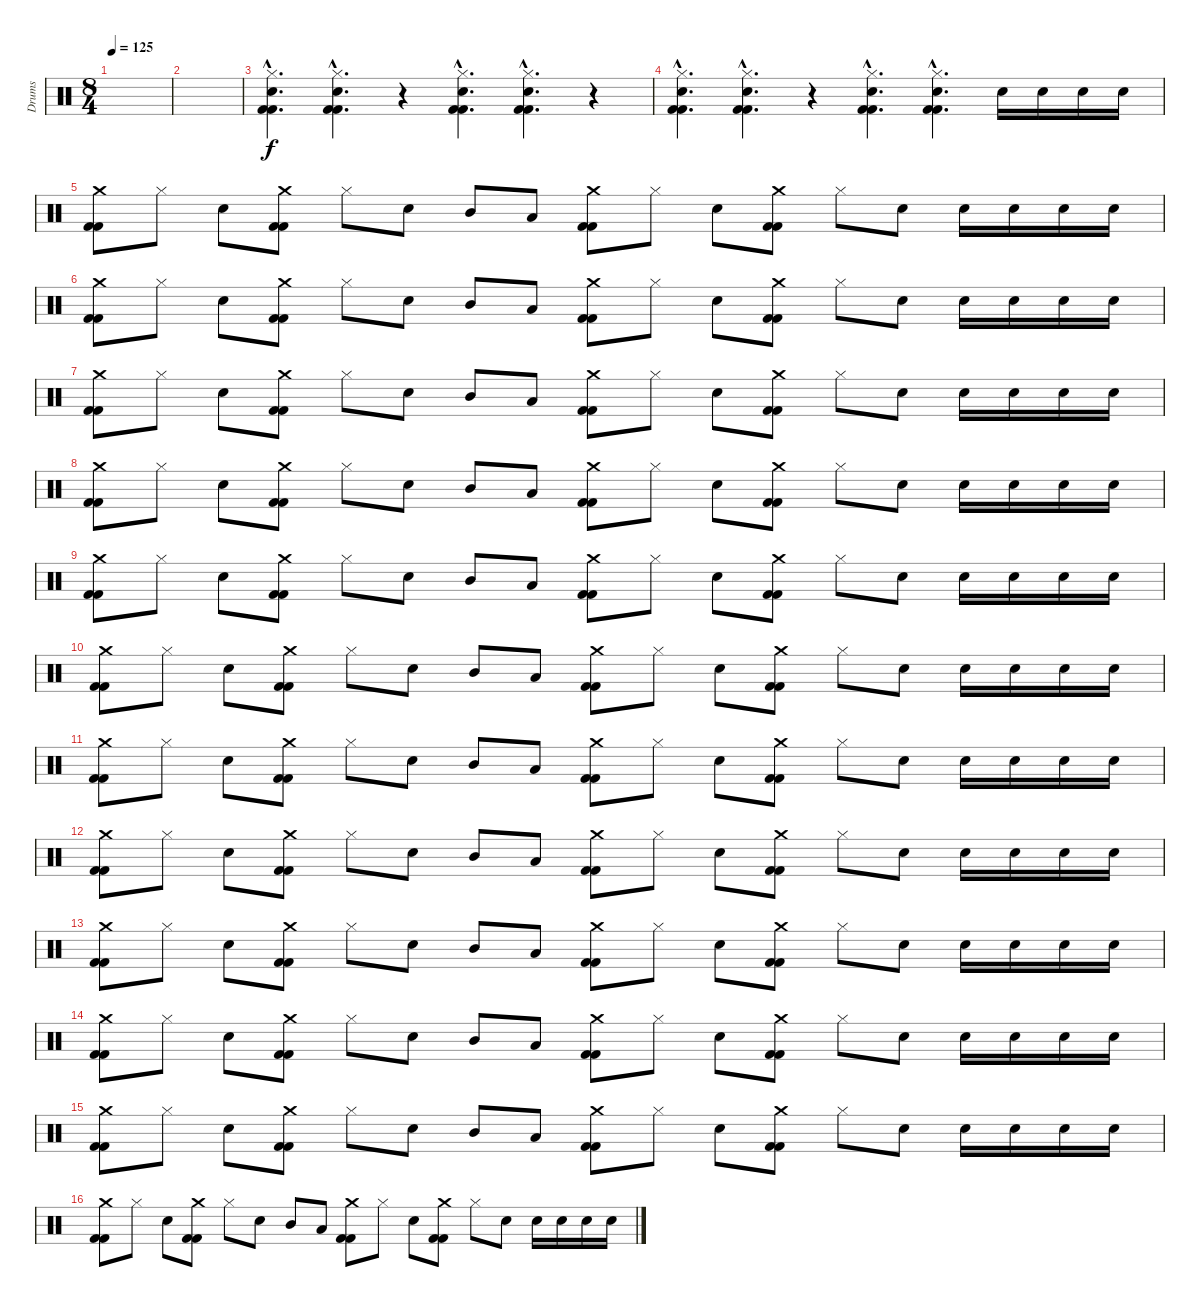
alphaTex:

\track ("Drums" "Drums") {instrument percussion}
\staff {score}
\articulation defaults
\ts (8 4)
\tempo 125
\clef neutral
\ks c
|
|
("Hi-Hat (closed)"{hac} "Snare (hit) 2"{hac} "Kick (hit) 2"{hac} "Kick (hit) 2"{hac}).4{d} ("Hi-Hat (closed)"{hac} "Snare (hit) 2"{hac} "Kick (hit) 2"{hac} "Kick (hit) 2"{hac}).4{d} r.4 ("Hi-Hat (closed)"{hac} "Snare (hit) 2"{hac} "Kick (hit) 2"{hac} "Kick (hit) 2"{hac}).4{d} ("Hi-Hat (closed)"{hac} "Snare (hit) 2"{hac} "Kick (hit) 2"{hac} "Kick (hit) 2"{hac}).4{d} r.4 |
("Hi-Hat (closed)"{hac} "Snare (hit) 2"{hac} "Kick (hit) 2"{hac} "Kick (hit) 2"{hac}).4{d} ("Hi-Hat (closed)"{hac} "Snare (hit) 2"{hac} "Kick (hit) 2"{hac} "Kick (hit) 2"{hac}).4{d} r.4 ("Hi-Hat (closed)"{hac} "Snare (hit) 2"{hac} "Kick (hit) 2"{hac} "Kick (hit) 2"{hac}).4{d} ("Hi-Hat (closed)"{hac} "Snare (hit) 2"{hac} "Kick (hit) 2"{hac} "Kick (hit) 2"{hac}).4{d} "Snare (hit) 2".16 "Snare (hit) 2".16 "Snare (hit) 2".16 "Snare (hit) 2".16 |
("Crash medium (hit)" "Kick (hit) 2" "Kick (hit) 2").8 "Hi-Hat (closed)".8 "Snare (hit) 2".8 ("Crash medium (hit)" "Kick (hit) 2" "Kick (hit) 2").8 "Hi-Hat (closed)".8 "Snare (hit) 2".8 "Mid Tom (hit)".8 "Low Tom (hit)".8 ("Crash medium (hit)" "Kick (hit) 2" "Kick (hit) 2").8 "Hi-Hat (closed)".8 "Snare (hit) 2".8 ("Crash medium (hit)" "Kick (hit) 2" "Kick (hit) 2").8 "Hi-Hat (closed)".8 "Snare (hit) 2".8 "Snare (hit) 2".16 "Snare (hit) 2".16 "Snare (hit) 2".16 "Snare (hit) 2".16 |
("Crash medium (hit)" "Kick (hit) 2" "Kick (hit) 2").8 "Hi-Hat (closed)".8 "Snare (hit) 2".8 ("Crash medium (hit)" "Kick (hit) 2" "Kick (hit) 2").8 "Hi-Hat (closed)".8 "Snare (hit) 2".8 "Mid Tom (hit)".8 "Low Tom (hit)".8 ("Crash medium (hit)" "Kick (hit) 2" "Kick (hit) 2").8 "Hi-Hat (closed)".8 "Snare (hit) 2".8 ("Crash medium (hit)" "Kick (hit) 2" "Kick (hit) 2").8 "Hi-Hat (closed)".8 "Snare (hit) 2".8 "Snare (hit) 2".16 "Snare (hit) 2".16 "Snare (hit) 2".16 "Snare (hit) 2".16 |
("Crash medium (hit)" "Kick (hit) 2" "Kick (hit) 2").8 "Hi-Hat (closed)".8 "Snare (hit) 2".8 ("Crash medium (hit)" "Kick (hit) 2" "Kick (hit) 2").8 "Hi-Hat (closed)".8 "Snare (hit) 2".8 "Mid Tom (hit)".8 "Low Tom (hit)".8 ("Crash medium (hit)" "Kick (hit) 2" "Kick (hit) 2").8 "Hi-Hat (closed)".8 "Snare (hit) 2".8 ("Crash medium (hit)" "Kick (hit) 2" "Kick (hit) 2").8 "Hi-Hat (closed)".8 "Snare (hit) 2".8 "Snare (hit) 2".16 "Snare (hit) 2".16 "Snare (hit) 2".16 "Snare (hit) 2".16 |
("Crash medium (hit)" "Kick (hit) 2" "Kick (hit) 2").8 "Hi-Hat (closed)".8 "Snare (hit) 2".8 ("Crash medium (hit)" "Kick (hit) 2" "Kick (hit) 2").8 "Hi-Hat (closed)".8 "Snare (hit) 2".8 "Mid Tom (hit)".8 "Low Tom (hit)".8 ("Crash medium (hit)" "Kick (hit) 2" "Kick (hit) 2").8 "Hi-Hat (closed)".8 "Snare (hit) 2".8 ("Crash medium (hit)" "Kick (hit) 2" "Kick (hit) 2").8 "Hi-Hat (closed)".8 "Snare (hit) 2".8 "Snare (hit) 2".16 "Snare (hit) 2".16 "Snare (hit) 2".16 "Snare (hit) 2".16 |
("Crash medium (hit)" "Kick (hit) 2" "Kick (hit) 2").8 "Hi-Hat (closed)".8 "Snare (hit) 2".8 ("Crash medium (hit)" "Kick (hit) 2" "Kick (hit) 2").8 "Hi-Hat (closed)".8 "Snare (hit) 2".8 "Mid Tom (hit)".8 "Low Tom (hit)".8 ("Crash medium (hit)" "Kick (hit) 2" "Kick (hit) 2").8 "Hi-Hat (closed)".8 "Snare (hit) 2".8 ("Crash medium (hit)" "Kick (hit) 2" "Kick (hit) 2").8 "Hi-Hat (closed)".8 "Snare (hit) 2".8 "Snare (hit) 2".16 "Snare (hit) 2".16 "Snare (hit) 2".16 "Snare (hit) 2".16 |
("Crash medium (hit)" "Kick (hit) 2" "Kick (hit) 2").8 "Hi-Hat (closed)".8 "Snare (hit) 2".8 ("Crash medium (hit)" "Kick (hit) 2" "Kick (hit) 2").8 "Hi-Hat (closed)".8 "Snare (hit) 2".8 "Mid Tom (hit)".8 "Low Tom (hit)".8 ("Crash medium (hit)" "Kick (hit) 2" "Kick (hit) 2").8 "Hi-Hat (closed)".8 "Snare (hit) 2".8 ("Crash medium (hit)" "Kick (hit) 2" "Kick (hit) 2").8 "Hi-Hat (closed)".8 "Snare (hit) 2".8 "Snare (hit) 2".16 "Snare (hit) 2".16 "Snare (hit) 2".16 "Snare (hit) 2".16 |
("Crash medium (hit)" "Kick (hit) 2" "Kick (hit) 2").8 "Hi-Hat (closed)".8 "Snare (hit) 2".8 ("Crash medium (hit)" "Kick (hit) 2" "Kick (hit) 2").8 "Hi-Hat (closed)".8 "Snare (hit) 2".8 "Mid Tom (hit)".8 "Low Tom (hit)".8 ("Crash medium (hit)" "Kick (hit) 2" "Kick (hit) 2").8 "Hi-Hat (closed)".8 "Snare (hit) 2".8 ("Crash medium (hit)" "Kick (hit) 2" "Kick (hit) 2").8 "Hi-Hat (closed)".8 "Snare (hit) 2".8 "Snare (hit) 2".16 "Snare (hit) 2".16 "Snare (hit) 2".16 "Snare (hit) 2".16 |
("Crash medium (hit)" "Kick (hit) 2" "Kick (hit) 2").8 "Hi-Hat (closed)".8 "Snare (hit) 2".8 ("Crash medium (hit)" "Kick (hit) 2" "Kick (hit) 2").8 "Hi-Hat (closed)".8 "Snare (hit) 2".8 "Mid Tom (hit)".8 "Low Tom (hit)".8 ("Crash medium (hit)" "Kick (hit) 2" "Kick (hit) 2").8 "Hi-Hat (closed)".8 "Snare (hit) 2".8 ("Crash medium (hit)" "Kick (hit) 2" "Kick (hit) 2").8 "Hi-Hat (closed)".8 "Snare (hit) 2".8 "Snare (hit) 2".16 "Snare (hit) 2".16 "Snare (hit) 2".16 "Snare (hit) 2".16 |
("Crash medium (hit)" "Kick (hit) 2" "Kick (hit) 2").8 "Hi-Hat (closed)".8 "Snare (hit) 2".8 ("Crash medium (hit)" "Kick (hit) 2" "Kick (hit) 2").8 "Hi-Hat (closed)".8 "Snare (hit) 2".8 "Mid Tom (hit)".8 "Low Tom (hit)".8 ("Crash medium (hit)" "Kick (hit) 2" "Kick (hit) 2").8 "Hi-Hat (closed)".8 "Snare (hit) 2".8 ("Crash medium (hit)" "Kick (hit) 2" "Kick (hit) 2").8 "Hi-Hat (closed)".8 "Snare (hit) 2".8 "Snare (hit) 2".16 "Snare (hit) 2".16 "Snare (hit) 2".16 "Snare (hit) 2".16 |
("Crash medium (hit)" "Kick (hit) 2" "Kick (hit) 2").8 "Hi-Hat (closed)".8 "Snare (hit) 2".8 ("Crash medium (hit)" "Kick (hit) 2" "Kick (hit) 2").8 "Hi-Hat (closed)".8 "Snare (hit) 2".8 "Mid Tom (hit)".8 "Low Tom (hit)".8 ("Crash medium (hit)" "Kick (hit) 2" "Kick (hit) 2").8 "Hi-Hat (closed)".8 "Snare (hit) 2".8 ("Crash medium (hit)" "Kick (hit) 2" "Kick (hit) 2").8 "Hi-Hat (closed)".8 "Snare (hit) 2".8 "Snare (hit) 2".16 "Snare (hit) 2".16 "Snare (hit) 2".16 "Snare (hit) 2".16 |
("Crash medium (hit)" "Kick (hit) 2" "Kick (hit) 2").8 "Hi-Hat (closed)".8 "Snare (hit) 2".8 ("Crash medium (hit)" "Kick (hit) 2" "Kick (hit) 2").8 "Hi-Hat (closed)".8 "Snare (hit) 2".8 "Mid Tom (hit)".8 "Low Tom (hit)".8 ("Crash medium (hit)" "Kick (hit) 2" "Kick (hit) 2").8 "Hi-Hat (closed)".8 "Snare (hit) 2".8 ("Crash medium (hit)" "Kick (hit) 2" "Kick (hit) 2").8 "Hi-Hat (closed)".8 "Snare (hit) 2".8 "Snare (hit) 2".16 "Snare (hit) 2".16 "Snare (hit) 2".16 "Snare (hit) 2".16 |
("Crash medium (hit)" "Kick (hit) 2" "Kick (hit) 2").8 "Hi-Hat (closed)".8 "Snare (hit) 2".8 ("Crash medium (hit)" "Kick (hit) 2" "Kick (hit) 2").8 "Hi-Hat (closed)".8 "Snare (hit) 2".8 "Mid Tom (hit)".8 "Low Tom (hit)".8 ("Crash medium (hit)" "Kick (hit) 2" "Kick (hit) 2").8 "Hi-Hat (closed)".8 "Snare (hit) 2".8 ("Crash medium (hit)" "Kick (hit) 2" "Kick (hit) 2").8 "Hi-Hat (closed)".8 "Snare (hit) 2".8 "Snare (hit) 2".16 "Snare (hit) 2".16 "Snare (hit) 2".16 "Snare (hit) 2".16
